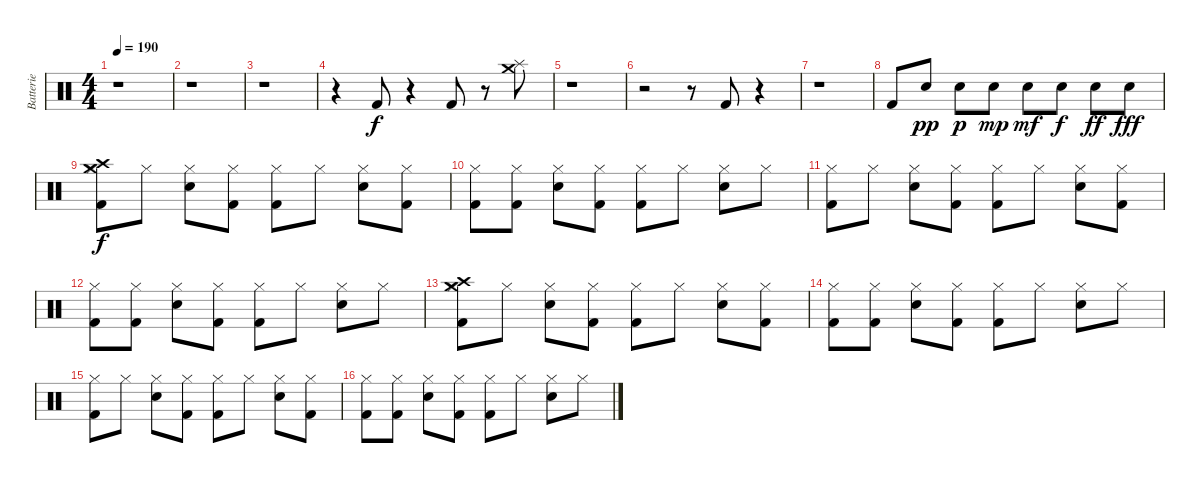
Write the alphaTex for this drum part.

\track ("Batterie" "Batterie") {instrument percussion}
\staff {score}
\articulation defaults
\ts (4 4)
\tempo 190
\clef neutral
\ks c
r.1{dy f} |
r.1 |
r.1 |
r.4 "Kick (hit) 2".8 r.4 "Kick (hit) 2".8 r.8 ("Crash medium (hit)" "Splash (hit)").8 |
r.1 |
r.2 r.8 "Kick (hit) 2".8 r.4 |
r.1 |
"Kick (hit) 2".8 "Electric Snare (hit)".8{dy pp} "Electric Snare (hit)".8{dy p} "Electric Snare (hit)".8{dy mp} "Electric Snare (hit)".8{dy mf} "Electric Snare (hit)".8{dy f} "Electric Snare (hit)".8{dy ff} "Electric Snare (hit)".8{dy fff} |
("Hi-Hat (closed)" "Crash high (hit)" "Crash medium (hit)" "Kick (hit) 2").8{dy f} "Hi-Hat (closed)".8 ("Hi-Hat (closed)" "Electric Snare (hit)").8 ("Hi-Hat (closed)" "Kick (hit) 2").8 ("Hi-Hat (closed)" "Kick (hit) 2").8 "Hi-Hat (closed)".8 ("Hi-Hat (closed)" "Electric Snare (hit)").8 ("Hi-Hat (closed)" "Kick (hit) 2").8 |
("Hi-Hat (closed)" "Kick (hit) 2").8 ("Hi-Hat (closed)" "Kick (hit) 2").8 ("Hi-Hat (closed)" "Electric Snare (hit)").8 ("Hi-Hat (closed)" "Kick (hit) 2").8 ("Hi-Hat (closed)" "Kick (hit) 2").8 "Hi-Hat (closed)".8 ("Hi-Hat (closed)" "Electric Snare (hit)").8 "Hi-Hat (closed)".8 |
("Hi-Hat (closed)" "Kick (hit) 2").8 "Hi-Hat (closed)".8 ("Hi-Hat (closed)" "Electric Snare (hit)").8 ("Hi-Hat (closed)" "Kick (hit) 2").8 ("Hi-Hat (closed)" "Kick (hit) 2").8 "Hi-Hat (closed)".8 ("Hi-Hat (closed)" "Electric Snare (hit)").8 ("Hi-Hat (closed)" "Kick (hit) 2").8 |
("Hi-Hat (closed)" "Kick (hit) 2").8 ("Hi-Hat (closed)" "Kick (hit) 2").8 ("Hi-Hat (closed)" "Electric Snare (hit)").8 ("Hi-Hat (closed)" "Kick (hit) 2").8 ("Hi-Hat (closed)" "Kick (hit) 2").8 "Hi-Hat (closed)".8 ("Hi-Hat (closed)" "Electric Snare (hit)").8 "Hi-Hat (closed)".8 |
("Hi-Hat (closed)" "Crash high (hit)" "Crash medium (hit)" "Kick (hit) 2").8 "Hi-Hat (closed)".8 ("Hi-Hat (closed)" "Electric Snare (hit)").8 ("Hi-Hat (closed)" "Kick (hit) 2").8 ("Hi-Hat (closed)" "Kick (hit) 2").8 "Hi-Hat (closed)".8 ("Hi-Hat (closed)" "Electric Snare (hit)").8 ("Hi-Hat (closed)" "Kick (hit) 2").8 |
("Hi-Hat (closed)" "Kick (hit) 2").8 ("Hi-Hat (closed)" "Kick (hit) 2").8 ("Hi-Hat (closed)" "Electric Snare (hit)").8 ("Hi-Hat (closed)" "Kick (hit) 2").8 ("Hi-Hat (closed)" "Kick (hit) 2").8 "Hi-Hat (closed)".8 ("Hi-Hat (closed)" "Electric Snare (hit)").8 "Hi-Hat (closed)".8 |
("Hi-Hat (closed)" "Kick (hit) 2").8 "Hi-Hat (closed)".8 ("Hi-Hat (closed)" "Electric Snare (hit)").8 ("Hi-Hat (closed)" "Kick (hit) 2").8 ("Hi-Hat (closed)" "Kick (hit) 2").8 "Hi-Hat (closed)".8 ("Hi-Hat (closed)" "Electric Snare (hit)").8 ("Hi-Hat (closed)" "Kick (hit) 2").8 |
("Hi-Hat (closed)" "Kick (hit) 2").8 ("Hi-Hat (closed)" "Kick (hit) 2").8 ("Hi-Hat (closed)" "Electric Snare (hit)").8 ("Hi-Hat (closed)" "Kick (hit) 2").8 ("Hi-Hat (closed)" "Kick (hit) 2").8 "Hi-Hat (closed)".8 ("Hi-Hat (closed)" "Electric Snare (hit)").8 "Hi-Hat (closed)".8
